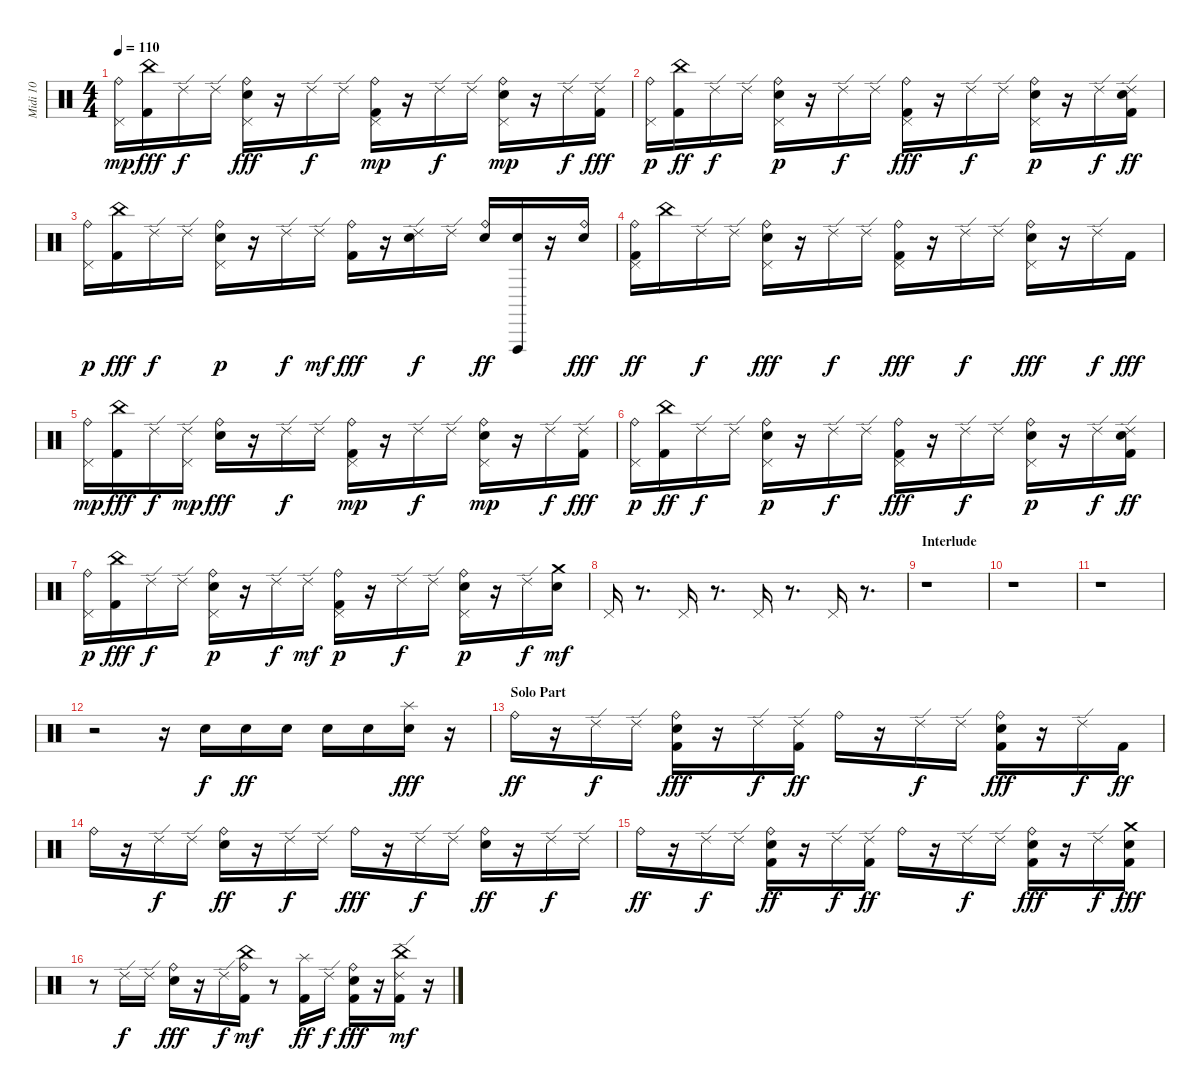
\track ("Midi 10" "Midi 10") {instrument percussion}
\staff {score}
\articulation defaults
\ts (4 4)
\tempo 110
\clef neutral
\ks c
("Ride (bell)" "Pedal Hi-Hat (hit)").16{dy mp} ("China (hit)" "Kick (hit) 2").16{dy fff} "Ride (edge) 2".16{dy f} "Ride (edge) 2".16 ("Pedal Hi-Hat (hit)" "Ride (bell)" "Snare (hit) 2").16{dy fff} r.16 "Ride (edge) 2".16{dy f} "Ride (edge) 2".16 ("Ride (bell)" "Kick (hit) 2" "Pedal Hi-Hat (hit)").16{dy mp} r.16 "Ride (edge) 2".16{dy f} "Ride (edge) 2".16 ("Ride (bell)" "Snare (hit) 2" "Pedal Hi-Hat (hit)").16{dy mp} r.16 "Ride (edge) 2".16{dy f} ("Ride (edge) 2" "Kick (hit) 2").16{dy fff} |
("Ride (bell)" "Pedal Hi-Hat (hit)").16{dy p} ("Kick (hit) 2" "China (hit)").16{dy ff} "Ride (edge) 2".16{dy f} "Ride (edge) 2".16 ("Ride (bell)" "Snare (hit) 2" "Pedal Hi-Hat (hit)").16{dy p} r.16 "Ride (edge) 2".16{dy f} "Ride (edge) 2".16 ("Ride (bell)" "Pedal Hi-Hat (hit)" "Kick (hit) 2").16{dy fff} r.16 "Ride (edge) 2".16{dy f} "Ride (edge) 2".16 ("Ride (bell)" "Snare (hit) 2" "Pedal Hi-Hat (hit)").16{dy p} r.16 "Ride (edge) 2".16{dy f} ("Ride (edge) 2" "Kick (hit) 2" "Snare (hit) 2").16{dy ff} |
("Ride (bell)" "Pedal Hi-Hat (hit)").16{dy p} ("China (hit)" "Kick (hit) 2").16{dy fff} "Ride (edge) 2".16{dy f} "Ride (edge) 2".16 ("Ride (bell)" "Snare (hit) 2" "Pedal Hi-Hat (hit)").16{dy p} r.16 "Ride (edge) 2".16{dy f} "Ride (edge) 2".16{dy mf} ("Ride (bell)" "Kick (hit) 2").16{dy fff} r.16 ("Ride (edge) 2" "Snare (hit) 2").16{dy f} "Ride (edge) 2".16 ("Ride (bell)" "Snare (hit) 2").16{dy ff} ("Vibraslap (hit)" "Snare (hit) 2").16 r.16 ("Ride (bell)" "Snare (hit) 2").16{dy fff} |
("Pedal Hi-Hat (hit)" "Kick (hit) 2" "Ride (bell)").16{dy ff} "China (hit)".16 "Ride (edge) 2".16{dy f} "Ride (edge) 2".16 ("Ride (bell)" "Pedal Hi-Hat (hit)" "Snare (hit) 2").16{dy fff} r.16 "Ride (edge) 2".16{dy f} "Ride (edge) 2".16 ("Pedal Hi-Hat (hit)" "Ride (bell)" "Kick (hit) 2").16{dy fff} r.16 "Ride (edge) 2".16{dy f} "Ride (edge) 2".16 ("Ride (bell)" "Pedal Hi-Hat (hit)" "Snare (hit) 2").16{dy fff} r.16 "Ride (edge) 2".16{dy f} "Kick (hit) 2".16{dy fff} |
("Ride (bell)" "Pedal Hi-Hat (hit)").16{dy mp} ("China (hit)" "Kick (hit) 2").16{dy fff} "Ride (edge) 2".16{dy f} ("Ride (edge) 2" "Pedal Hi-Hat (hit)").16{dy mp} ("Ride (bell)" "Snare (hit) 2").16{dy fff} r.16 "Ride (edge) 2".16{dy f} "Ride (edge) 2".16 ("Ride (bell)" "Kick (hit) 2" "Pedal Hi-Hat (hit)").16{dy mp} r.16 "Ride (edge) 2".16{dy f} "Ride (edge) 2".16 ("Ride (bell)" "Snare (hit) 2" "Pedal Hi-Hat (hit)").16{dy mp} r.16 "Ride (edge) 2".16{dy f} ("Ride (edge) 2" "Kick (hit) 2").16{dy fff} |
("Ride (bell)" "Pedal Hi-Hat (hit)").16{dy p} ("Kick (hit) 2" "China (hit)").16{dy ff} "Ride (edge) 2".16{dy f} "Ride (edge) 2".16 ("Ride (bell)" "Snare (hit) 2" "Pedal Hi-Hat (hit)").16{dy p} r.16 "Ride (edge) 2".16{dy f} "Ride (edge) 2".16 ("Ride (bell)" "Pedal Hi-Hat (hit)" "Kick (hit) 2").16{dy fff} r.16 "Ride (edge) 2".16{dy f} "Ride (edge) 2".16 ("Ride (bell)" "Snare (hit) 2" "Pedal Hi-Hat (hit)").16{dy p} r.16 "Ride (edge) 2".16{dy f} ("Ride (edge) 2" "Kick (hit) 2" "Snare (hit) 2").16{dy ff} |
("Ride (bell)" "Pedal Hi-Hat (hit)").16{dy p} ("China (hit)" "Kick (hit) 2").16{dy fff} "Ride (edge) 2".16{dy f} "Ride (edge) 2".16 ("Ride (bell)" "Snare (hit) 2" "Pedal Hi-Hat (hit)").16{dy p} r.16 "Ride (edge) 2".16{dy f} "Ride (edge) 2".16{dy mf} ("Ride (bell)" "Kick (hit) 2" "Pedal Hi-Hat (hit)").16{dy p} r.16 "Ride (edge) 2".16{dy f} "Ride (edge) 2".16 ("Ride (bell)" "Snare (hit) 2" "Pedal Hi-Hat (hit)").16{dy p} r.16 "Ride (edge) 2".16{dy f} ("Crash medium (hit)" "Snare (hit) 2").16{dy mf} |
"Pedal Hi-Hat (hit)".16 r.8{d} "Pedal Hi-Hat (hit)".16 r.8{d} "Pedal Hi-Hat (hit)".16 r.8{d} "Pedal Hi-Hat (hit)".16 r.8{d} |
\section ("" "Interlude")
r.1 |
r.1 |
r.1 |
r.2 r.16 "Snare (hit) 2".16{dy f} "Snare (hit) 2".16{dy ff} "Snare (hit) 2".16 "Snare (hit) 2".16 "Snare (hit) 2".16 ("Snare (hit) 2" "Splash (hit)").16{dy fff} r.16 |
\section ("" "Solo Part")
"Ride (bell)".16{dy ff} r.16 "Ride (edge) 2".16{dy f} "Ride (edge) 2".16 ("Kick (hit) 2" "Ride (bell)" "Snare (hit) 2").16{dy fff} r.16 "Ride (edge) 2".16{dy f} ("Ride (edge) 2" "Kick (hit) 2").16{dy ff} "Ride (bell)".16 r.16 "Ride (edge) 2".16{dy f} "Ride (edge) 2".16 ("Ride (bell)" "Kick (hit) 2" "Snare (hit) 2").16{dy fff} r.16 "Ride (edge) 2".16{dy f} "Kick (hit) 2".16{dy ff} |
"Ride (bell)".16 r.16 "Ride (edge) 2".16{dy f} "Ride (edge) 2".16 ("Snare (hit) 2" "Ride (bell)").16{dy ff} r.16 "Ride (edge) 2".16{dy f} "Ride (edge) 2".16 "Ride (bell)".16{dy fff} r.16 "Ride (edge) 2".16{dy f} "Ride (edge) 2".16 ("Snare (hit) 2" "Ride (bell)").16{dy ff} r.16 "Ride (edge) 2".16{dy f} "Ride (edge) 2".16 |
"Ride (bell)".16{dy ff} r.16 "Ride (edge) 2".16{dy f} "Ride (edge) 2".16 ("Kick (hit) 2" "Snare (hit) 2" "Ride (bell)").16{dy ff} r.16 "Ride (edge) 2".16{dy f} ("Kick (hit) 2" "Ride (edge) 2").16{dy ff} "Ride (bell)".16 r.16 "Ride (edge) 2".16{dy f} "Ride (edge) 2".16 ("Kick (hit) 2" "Ride (bell)" "Snare (hit) 2").16{dy fff} r.16 "Ride (edge) 2".16{dy f} ("Kick (hit) 2" "Snare (hit) 2" "Crash medium (hit)").16{dy fff} |
r.8 "Ride (edge) 2".16{dy f} "Ride (edge) 2".16 ("Ride (bell)" "Snare (hit) 2").16{dy fff} r.16 "Ride (edge) 2".16{dy f} ("Ride (bell)" "Kick (hit) 2" "China (hit)").16{dy mf} r.8 ("Kick (hit) 2" "Splash (hit)").16{dy ff} "Ride (edge) 2".16{dy f} ("Ride (bell)" "Kick (hit) 2" "Snare (hit) 2").16{dy fff} r.16 ("Kick (hit) 2" "China (hit)" "Ride (edge) 2").16{dy mf} r.16
